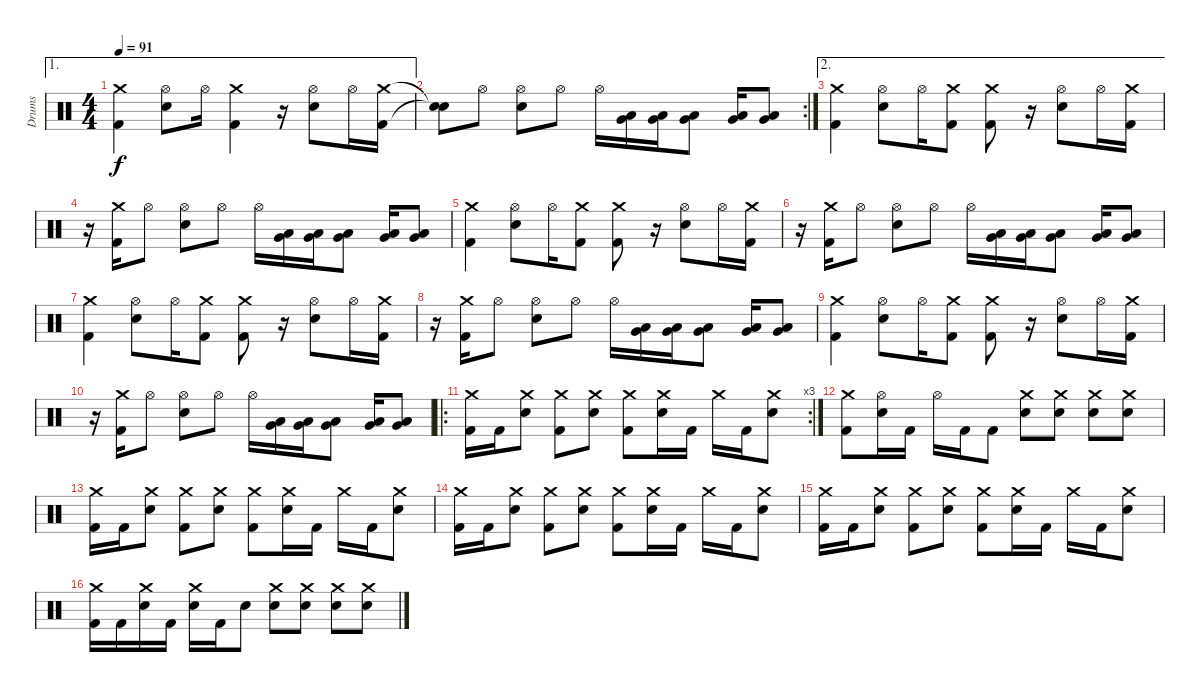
\track ("Drums" "Drums") {instrument percussion}
\staff {score}
\articulation defaults
\ae 1
\ts (4 4)
\tempo 91
\clef neutral
\ks c
("Crash medium (hit)" "Kick (hit) 2").4{dy f} ("Hi-Hat (open)" "Snare (hit) 2").8 "Hi-Hat (open)".16 ("Crash medium (hit)" "Kick (hit) 2").4 r.16 ("Hi-Hat (open)" "Snare (hit) 2").8 "Hi-Hat (open)".16 ("Crash medium (hit)" "Kick (hit) 2").16 |
\rc 2
("Snare (hit)"{t} "Snare (hit)"{t}).8 "Hi-Hat (open)".8 ("Hi-Hat (open)" "Snare (hit) 2").8 "Hi-Hat (open)".8 "Hi-Hat (open)".16 ("Low Tom (hit)" "Very Low Tom (hit)").16 ("Low Tom (hit)" "Very Low Tom (hit)").16 ("Low Tom (hit)" "Very Low Tom (hit)").8 ("Low Tom (hit)" "Very Low Tom (hit)").16 ("Low Tom (hit)" "Very Low Tom (hit)").8 |
\ae 2
("Crash medium (hit)" "Kick (hit) 2").4 ("Hi-Hat (open)" "Snare (hit) 2").8 "Hi-Hat (open)".16 ("Crash medium (hit)" "Kick (hit) 2").8 ("Crash medium (hit)" "Kick (hit) 2").8 r.16 ("Hi-Hat (open)" "Snare (hit) 2").8 "Hi-Hat (open)".16 ("Crash medium (hit)" "Kick (hit) 2").16 |
r.16 ("Crash medium (hit)" "Kick (hit) 2").16 "Hi-Hat (open)".8 ("Hi-Hat (open)" "Snare (hit) 2").8 "Hi-Hat (open)".8 "Hi-Hat (open)".16 ("Low Tom (hit)" "Very Low Tom (hit)").16 ("Low Tom (hit)" "Very Low Tom (hit)").16 ("Low Tom (hit)" "Very Low Tom (hit)").8 ("Low Tom (hit)" "Very Low Tom (hit)").16 ("Low Tom (hit)" "Very Low Tom (hit)").8 |
("Crash medium (hit)" "Kick (hit) 2").4 ("Hi-Hat (open)" "Snare (hit) 2").8 "Hi-Hat (open)".16 ("Crash medium (hit)" "Kick (hit) 2").8 ("Crash medium (hit)" "Kick (hit) 2").8 r.16 ("Hi-Hat (open)" "Snare (hit) 2").8 "Hi-Hat (open)".16 ("Crash medium (hit)" "Kick (hit) 2").16 |
r.16 ("Crash medium (hit)" "Kick (hit) 2").16 "Hi-Hat (open)".8 ("Hi-Hat (open)" "Snare (hit) 2").8 "Hi-Hat (open)".8 "Hi-Hat (open)".16 ("Low Tom (hit)" "Very Low Tom (hit)").16 ("Low Tom (hit)" "Very Low Tom (hit)").16 ("Low Tom (hit)" "Very Low Tom (hit)").8 ("Low Tom (hit)" "Very Low Tom (hit)").16 ("Low Tom (hit)" "Very Low Tom (hit)").8 |
("Crash medium (hit)" "Kick (hit) 2").4 ("Hi-Hat (open)" "Snare (hit) 2").8 "Hi-Hat (open)".16 ("Crash medium (hit)" "Kick (hit) 2").8 ("Crash medium (hit)" "Kick (hit) 2").8 r.16 ("Hi-Hat (open)" "Snare (hit) 2").8 "Hi-Hat (open)".16 ("Crash medium (hit)" "Kick (hit) 2").16 |
r.16 ("Crash medium (hit)" "Kick (hit) 2").16 "Hi-Hat (open)".8 ("Hi-Hat (open)" "Snare (hit) 2").8 "Hi-Hat (open)".8 "Hi-Hat (open)".16 ("Low Tom (hit)" "Very Low Tom (hit)").16 ("Low Tom (hit)" "Very Low Tom (hit)").16 ("Low Tom (hit)" "Very Low Tom (hit)").8 ("Low Tom (hit)" "Very Low Tom (hit)").16 ("Low Tom (hit)" "Very Low Tom (hit)").8 |
("Crash medium (hit)" "Kick (hit) 2").4 ("Hi-Hat (open)" "Snare (hit) 2").8 "Hi-Hat (open)".16 ("Crash medium (hit)" "Kick (hit) 2").8 ("Crash medium (hit)" "Kick (hit) 2").8 r.16 ("Hi-Hat (open)" "Snare (hit) 2").8 "Hi-Hat (open)".16 ("Crash medium (hit)" "Kick (hit) 2").16 |
r.16 ("Crash medium (hit)" "Kick (hit) 2").16 "Hi-Hat (open)".8 ("Hi-Hat (open)" "Snare (hit) 2").8 "Hi-Hat (open)".8 "Hi-Hat (open)".16 ("Low Tom (hit)" "Very Low Tom (hit)").16 ("Low Tom (hit)" "Very Low Tom (hit)").16 ("Low Tom (hit)" "Very Low Tom (hit)").8 ("Low Tom (hit)" "Very Low Tom (hit)").16 ("Low Tom (hit)" "Very Low Tom (hit)").8 |
\ro
\rc 3
("Crash medium (hit)" "Kick (hit) 2").16 "Kick (hit) 2".16 ("Crash medium (hit)" "Snare (hit) 2").8 ("Crash medium (hit)" "Kick (hit) 2").8 ("Crash medium (hit)" "Snare (hit) 2").8 ("Crash medium (hit)" "Kick (hit) 2").8 ("Crash medium (hit)" "Snare (hit) 2").16 "Kick (hit) 2".16 "Crash medium (hit)".16 "Kick (hit) 2".16 ("Crash medium (hit)" "Snare (hit) 2").8 |
("Crash medium (hit)" "Kick (hit) 2").8 ("Hi-Hat (open)" "Snare (hit) 2").16 "Kick (hit) 2".16 "Hi-Hat (open)".16 "Kick (hit) 2".16 "Kick (hit) 2".8 ("Crash medium (hit)" "Snare (hit) 2").8 ("Crash medium (hit)" "Snare (hit) 2").8 ("Crash medium (hit)" "Snare (hit) 2").8 ("Crash medium (hit)" "Snare (hit) 2").8 |
("Crash medium (hit)" "Kick (hit) 2").16 "Kick (hit) 2".16 ("Crash medium (hit)" "Snare (hit) 2").8 ("Crash medium (hit)" "Kick (hit) 2").8 ("Crash medium (hit)" "Snare (hit) 2").8 ("Crash medium (hit)" "Kick (hit) 2").8 ("Crash medium (hit)" "Snare (hit) 2").16 "Kick (hit) 2".16 "Crash medium (hit)".16 "Kick (hit) 2".16 ("Crash medium (hit)" "Snare (hit) 2").8 |
("Crash medium (hit)" "Kick (hit) 2").16 "Kick (hit) 2".16 ("Crash medium (hit)" "Snare (hit) 2").8 ("Crash medium (hit)" "Kick (hit) 2").8 ("Crash medium (hit)" "Snare (hit) 2").8 ("Crash medium (hit)" "Kick (hit) 2").8 ("Crash medium (hit)" "Snare (hit) 2").16 "Kick (hit) 2".16 "Crash medium (hit)".16 "Kick (hit) 2".16 ("Crash medium (hit)" "Snare (hit) 2").8 |
("Crash medium (hit)" "Kick (hit) 2").16 "Kick (hit) 2".16 ("Crash medium (hit)" "Snare (hit) 2").8 ("Crash medium (hit)" "Kick (hit) 2").8 ("Crash medium (hit)" "Snare (hit) 2").8 ("Crash medium (hit)" "Kick (hit) 2").8 ("Crash medium (hit)" "Snare (hit) 2").16 "Kick (hit) 2".16 "Crash medium (hit)".16 "Kick (hit) 2".16 ("Crash medium (hit)" "Snare (hit) 2").8 |
("Crash medium (hit)" "Kick (hit) 2").16 "Kick (hit) 2".16 ("Crash medium (hit)" "Snare (hit) 2").16 "Kick (hit) 2".16 ("Crash medium (hit)" "Snare (hit) 2").16 "Kick (hit) 2".16 "Snare (hit) 2".8 ("Crash medium (hit)" "Snare (hit) 2").8 ("Crash medium (hit)" "Snare (hit) 2").8 ("Crash medium (hit)" "Snare (hit) 2").8 ("Crash medium (hit)" "Snare (hit) 2").8
